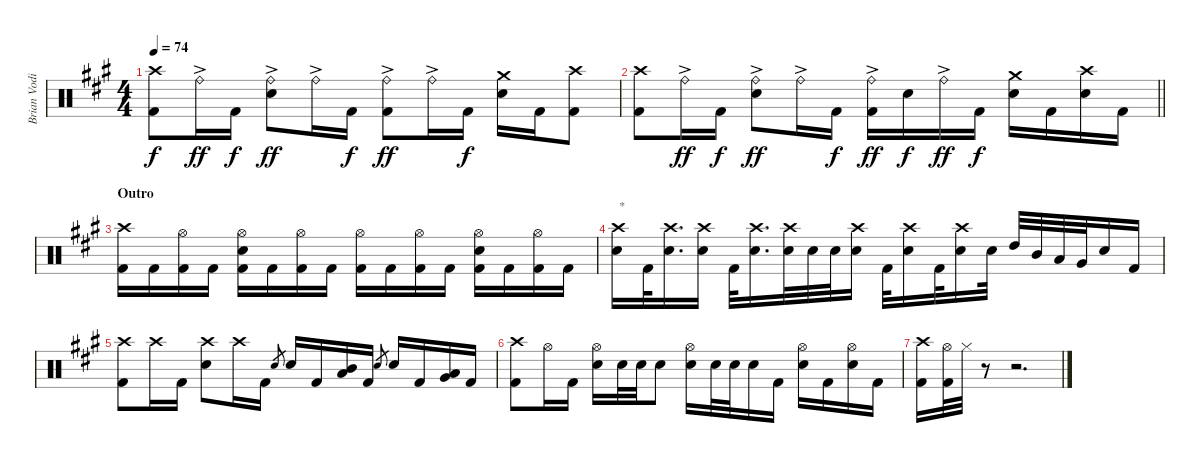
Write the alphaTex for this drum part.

\track ("Brian Vodinh" "Brian Vodi") {instrument percussion}
\staff {score}
\articulation defaults
\ts (4 4)
\tempo 74
\clef neutral
\ks f#minor
("Crash high (hit)" "Kick (hit) 2").8{dy f} "Ride (bell)"{ac}.16{dy ff} "Kick (hit) 2".16{dy f} ("Ride (bell)"{ac} "Electric Snare (hit)").8{dy ff} "Ride (bell)"{ac}.16 "Kick (hit) 2".16{dy f} ("Ride (bell)"{ac} "Kick (hit) 2").8{dy ff} "Ride (bell)"{ac}.16 "Kick (hit) 2".16{dy f} ("Crash medium (hit)" "Electric Snare (hit)").16 "Kick (hit) 2".16 ("Crash high (hit)" "Kick (hit) 2").8 |
\barLineRight lightlight
("Crash high (hit)" "Kick (hit) 2").8 "Ride (bell)"{ac}.16{dy ff} "Kick (hit) 2".16{dy f} ("Ride (bell)"{ac} "Electric Snare (hit)").8{dy ff} "Ride (bell)"{ac}.16 "Kick (hit) 2".16{dy f} ("Ride (bell)"{ac} "Kick (hit) 2").16{dy ff} "Electric Snare (hit)".16{dy f} "Ride (bell)"{ac}.16{dy ff} "Kick (hit) 2".16{dy f} ("Crash medium (hit)" "Electric Snare (hit)").16 "Kick (hit) 2".16 ("Crash high (hit)" "Electric Snare (hit)").16 "Kick (hit) 2".16 |
\section ("" "Outro")
("Crash high (hit)" "Kick (hit) 2").16 "Kick (hit) 2".16 ("Hi-Hat (open)" "Kick (hit) 2").16 "Kick (hit) 2".16 ("Hi-Hat (open)" "Electric Snare (hit)" "Kick (hit) 2").16 "Kick (hit) 2".16 ("Hi-Hat (open)" "Kick (hit) 2").16 "Kick (hit) 2".16 ("Hi-Hat (open)" "Kick (hit) 2").16 "Kick (hit) 2".16 ("Hi-Hat (open)" "Kick (hit) 2").16 "Kick (hit) 2".16 ("Hi-Hat (open)" "Electric Snare (hit)" "Kick (hit) 2").16 "Kick (hit) 2".16 ("Hi-Hat (open)" "Kick (hit) 2").16 "Kick (hit) 2".16 |
("Crash high (hit)" "Electric Snare (hit)").16{txt "*"} "Kick (hit) 2".32 ("Crash high (hit)" "Electric Snare (hit)").16{d} ("Crash high (hit)" "Electric Snare (hit)").16 "Kick (hit) 2".32 ("Crash high (hit)" "Electric Snare (hit)").16{d} ("Crash high (hit)" "Electric Snare (hit)").32 "Electric Snare (hit)".32 "Electric Snare (hit)".32 ("Crash high (hit)" "Electric Snare (hit)").16 "Kick (hit) 2".32 ("Crash high (hit)" "Electric Snare (hit)").16 "Kick (hit) 2".32 ("Crash high (hit)" "Electric Snare (hit)").16 "Electric Snare (hit)".32 "High Tom (hit)".32 "Mid Tom (hit)".32 "Low Tom (hit)".32 "Very Low Tom (hit)".32 "Electric Snare (hit)".16 "Kick (hit) 2".16 |
("Crash high (hit)" "Kick (hit) 2").8 "Crash high (hit)".16 "Kick (hit) 2".16 ("Crash high (hit)" "Electric Snare (hit)").8 "Crash high (hit)".16 "Kick (hit) 2".16 "Electric Snare (hit)".8{gr} "Electric Snare (hit)".16 "Kick (hit) 2".16 ("Mid Tom (hit)" "Low Tom (hit)").16 "Kick (hit) 2".16 "Electric Snare (hit)".8{gr} "Electric Snare (hit)".16 "Kick (hit) 2".16 ("Low Tom (hit)" "Very Low Tom (hit)").16 "Kick (hit) 2".16 |
("Crash high (hit)" "Kick (hit) 2").8 "Hi-Hat (open)".16 "Kick (hit) 2".16 ("Hi-Hat (open)" "Electric Snare (hit)").16 "Electric Snare (hit)".32 "Electric Snare (hit)".32 "Electric Snare (hit)".8 ("Hi-Hat (open)" "Electric Snare (hit)").16 "Electric Snare (hit)".32 "Electric Snare (hit)".32 "Electric Snare (hit)".16 "Kick (hit) 2".16 ("Hi-Hat (open)" "Electric Snare (hit)").16 "Kick (hit) 2".16 ("Hi-Hat (open)" "Electric Snare (hit)").16 "Kick (hit) 2".16 |
("Crash high (hit)" "Kick (hit) 2").16 ("Hi-Hat (open)" "Kick (hit) 2").32 "Hi-Hat (closed)".32 r.8 r.2{d}
